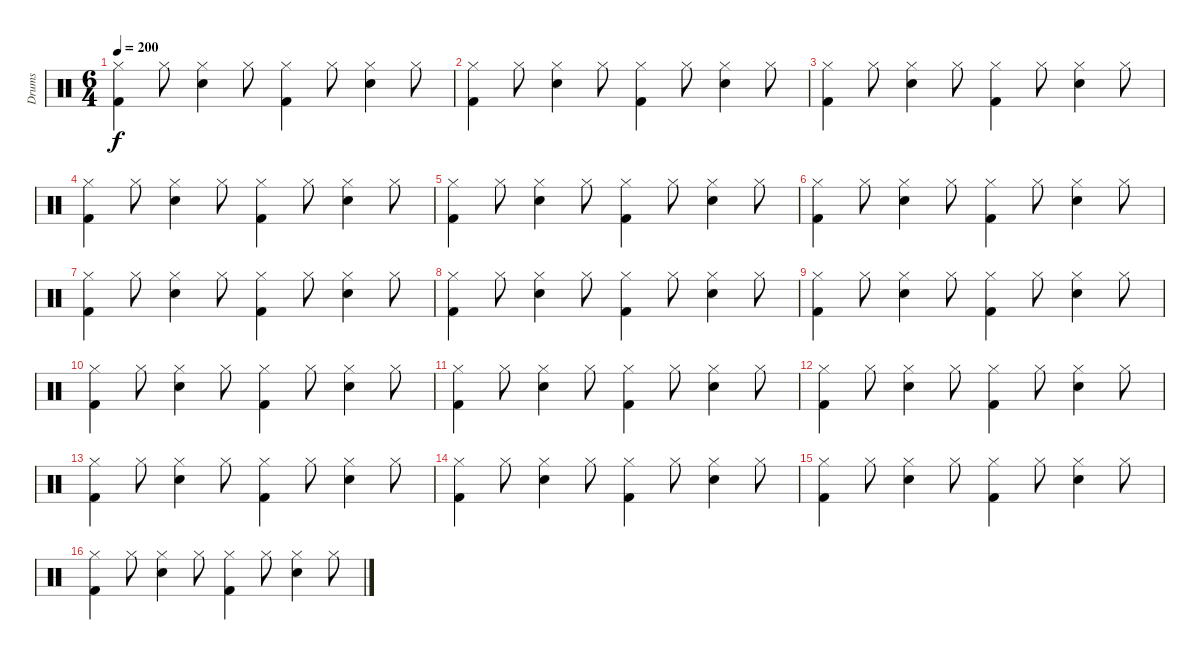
\track ("Drums" "Drums") {instrument percussion}
\staff {score}
\articulation defaults
\ts (6 4)
\tempo 200
\clef neutral
\ks c
("Hi-Hat (closed)" "Kick (hit) 2").4{dy f} "Hi-Hat (closed)".8 ("Hi-Hat (closed)" "Snare (hit) 2").4 "Hi-Hat (closed)".8 ("Hi-Hat (closed)" "Kick (hit) 2").4 "Hi-Hat (closed)".8 ("Hi-Hat (closed)" "Snare (hit) 2").4 "Hi-Hat (closed)".8 |
("Hi-Hat (closed)" "Kick (hit) 2").4 "Hi-Hat (closed)".8 ("Hi-Hat (closed)" "Snare (hit) 2").4 "Hi-Hat (closed)".8 ("Hi-Hat (closed)" "Kick (hit) 2").4 "Hi-Hat (closed)".8 ("Hi-Hat (closed)" "Snare (hit) 2").4 "Hi-Hat (closed)".8 |
("Hi-Hat (closed)" "Kick (hit) 2").4 "Hi-Hat (closed)".8 ("Hi-Hat (closed)" "Snare (hit) 2").4 "Hi-Hat (closed)".8 ("Hi-Hat (closed)" "Kick (hit) 2").4 "Hi-Hat (closed)".8 ("Hi-Hat (closed)" "Snare (hit) 2").4 "Hi-Hat (closed)".8 |
("Hi-Hat (closed)" "Kick (hit) 2").4 "Hi-Hat (closed)".8 ("Hi-Hat (closed)" "Snare (hit) 2").4 "Hi-Hat (closed)".8 ("Hi-Hat (closed)" "Kick (hit) 2").4 "Hi-Hat (closed)".8 ("Hi-Hat (closed)" "Snare (hit) 2").4 "Hi-Hat (closed)".8 |
("Hi-Hat (closed)" "Kick (hit) 2").4 "Hi-Hat (closed)".8 ("Hi-Hat (closed)" "Snare (hit) 2").4 "Hi-Hat (closed)".8 ("Hi-Hat (closed)" "Kick (hit) 2").4 "Hi-Hat (closed)".8 ("Hi-Hat (closed)" "Snare (hit) 2").4 "Hi-Hat (closed)".8 |
("Hi-Hat (closed)" "Kick (hit) 2").4 "Hi-Hat (closed)".8 ("Hi-Hat (closed)" "Snare (hit) 2").4 "Hi-Hat (closed)".8 ("Hi-Hat (closed)" "Kick (hit) 2").4 "Hi-Hat (closed)".8 ("Hi-Hat (closed)" "Snare (hit) 2").4 "Hi-Hat (closed)".8 |
("Hi-Hat (closed)" "Kick (hit) 2").4 "Hi-Hat (closed)".8 ("Hi-Hat (closed)" "Snare (hit) 2").4 "Hi-Hat (closed)".8 ("Hi-Hat (closed)" "Kick (hit) 2").4 "Hi-Hat (closed)".8 ("Hi-Hat (closed)" "Snare (hit) 2").4 "Hi-Hat (closed)".8 |
("Hi-Hat (closed)" "Kick (hit) 2").4 "Hi-Hat (closed)".8 ("Hi-Hat (closed)" "Snare (hit) 2").4 "Hi-Hat (closed)".8 ("Hi-Hat (closed)" "Kick (hit) 2").4 "Hi-Hat (closed)".8 ("Hi-Hat (closed)" "Snare (hit) 2").4 "Hi-Hat (closed)".8 |
("Hi-Hat (closed)" "Kick (hit) 2").4 "Hi-Hat (closed)".8 ("Hi-Hat (closed)" "Snare (hit) 2").4 "Hi-Hat (closed)".8 ("Hi-Hat (closed)" "Kick (hit) 2").4 "Hi-Hat (closed)".8 ("Hi-Hat (closed)" "Snare (hit) 2").4 "Hi-Hat (closed)".8 |
("Hi-Hat (closed)" "Kick (hit) 2").4 "Hi-Hat (closed)".8 ("Hi-Hat (closed)" "Snare (hit) 2").4 "Hi-Hat (closed)".8 ("Hi-Hat (closed)" "Kick (hit) 2").4 "Hi-Hat (closed)".8 ("Hi-Hat (closed)" "Snare (hit) 2").4 "Hi-Hat (closed)".8 |
("Hi-Hat (closed)" "Kick (hit) 2").4 "Hi-Hat (closed)".8 ("Hi-Hat (closed)" "Snare (hit) 2").4 "Hi-Hat (closed)".8 ("Hi-Hat (closed)" "Kick (hit) 2").4 "Hi-Hat (closed)".8 ("Hi-Hat (closed)" "Snare (hit) 2").4 "Hi-Hat (closed)".8 |
("Hi-Hat (closed)" "Kick (hit) 2").4 "Hi-Hat (closed)".8 ("Hi-Hat (closed)" "Snare (hit) 2").4 "Hi-Hat (closed)".8 ("Hi-Hat (closed)" "Kick (hit) 2").4 "Hi-Hat (closed)".8 ("Hi-Hat (closed)" "Snare (hit) 2").4 "Hi-Hat (closed)".8 |
("Hi-Hat (closed)" "Kick (hit) 2").4 "Hi-Hat (closed)".8 ("Hi-Hat (closed)" "Snare (hit) 2").4 "Hi-Hat (closed)".8 ("Hi-Hat (closed)" "Kick (hit) 2").4 "Hi-Hat (closed)".8 ("Hi-Hat (closed)" "Snare (hit) 2").4 "Hi-Hat (closed)".8 |
("Hi-Hat (closed)" "Kick (hit) 2").4 "Hi-Hat (closed)".8 ("Hi-Hat (closed)" "Snare (hit) 2").4 "Hi-Hat (closed)".8 ("Hi-Hat (closed)" "Kick (hit) 2").4 "Hi-Hat (closed)".8 ("Hi-Hat (closed)" "Snare (hit) 2").4 "Hi-Hat (closed)".8 |
("Hi-Hat (closed)" "Kick (hit) 2").4 "Hi-Hat (closed)".8 ("Hi-Hat (closed)" "Snare (hit) 2").4 "Hi-Hat (closed)".8 ("Hi-Hat (closed)" "Kick (hit) 2").4 "Hi-Hat (closed)".8 ("Hi-Hat (closed)" "Snare (hit) 2").4 "Hi-Hat (closed)".8 |
("Hi-Hat (closed)" "Kick (hit) 2").4 "Hi-Hat (closed)".8 ("Hi-Hat (closed)" "Snare (hit) 2").4 "Hi-Hat (closed)".8 ("Hi-Hat (closed)" "Kick (hit) 2").4 "Hi-Hat (closed)".8 ("Hi-Hat (closed)" "Snare (hit) 2").4 "Hi-Hat (closed)".8
